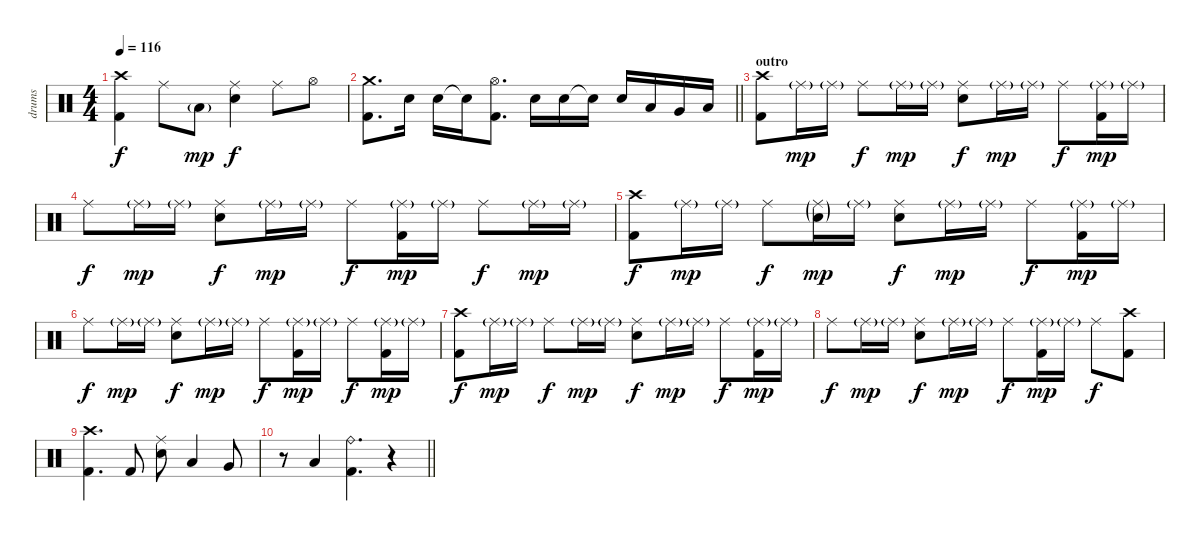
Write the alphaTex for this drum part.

\track ("drums" "drums") {instrument percussion}
\staff {score}
\articulation defaults
\ts (4 4)
\tempo 116
\clef neutral
\ks c
("Crash high (hit)" "Kick (hit) 2").4{dy f} "Ride (middle)".8 "Low Tom (hit)"{g}.8{dy mp} ("Ride (middle)" "Snare (hit) 2").4{dy f} "Ride (middle)".8 "Hi-Hat (open)".8 |
\barLineRight lightlight
("Crash medium (hit)" "Kick (hit) 2").8{d} "Snare (hit) 2".16 "Snare (hit) 2".16 "Snare (hit)"{t}.16 ("Hi-Hat (open)" "Kick (hit) 2").8{d} "Snare (hit) 2".16 "Snare (hit) 2".16 "Snare (hit)"{t}.16 "Snare (hit) 2".16 "Low Tom (hit)".16 "Very Low Tom (hit)".16 "Low Floor Tom (hit)".16 |
\section ("" "outro")
("Crash high (hit)" "Kick (hit) 2").8 "Ride (middle)"{g}.16{dy mp} "Ride (middle)"{g}.16 "Ride (middle)".8{dy f} "Ride (middle)"{g}.16{dy mp} "Ride (middle)"{g}.16 ("Ride (middle)" "Snare (hit) 2").8{dy f} "Ride (middle)"{g}.16{dy mp} "Ride (middle)"{g}.16 "Ride (middle)".8{dy f} ("Ride (middle)"{g} "Kick (hit) 2").16{dy mp} "Ride (middle)"{g}.16 |
"Ride (middle)".8{dy f} "Ride (middle)"{g}.16{dy mp} "Ride (middle)"{g}.16 ("Ride (middle)" "Snare (hit) 2").8{dy f} "Ride (middle)"{g}.16{dy mp} "Ride (middle)"{g}.16 "Ride (middle)".8{dy f} ("Ride (middle)"{g} "Kick (hit) 2").16{dy mp} "Ride (middle)"{g}.16 "Ride (middle)".8{dy f} "Ride (middle)"{g}.16{dy mp} "Ride (middle)"{g}.16 |
("Crash high (hit)" "Kick (hit) 2").8{dy f} "Ride (middle)"{g}.16{dy mp} "Ride (middle)"{g}.16 "Ride (middle)".8{dy f} ("Ride (middle)"{g} "Snare (hit) 2"{g}).16{dy mp} "Ride (middle)"{g}.16 ("Ride (middle)" "Snare (hit) 2").8{dy f} "Ride (middle)"{g}.16{dy mp} "Ride (middle)"{g}.16 "Ride (middle)".8{dy f} ("Ride (middle)"{g} "Kick (hit) 2").16{dy mp} "Ride (middle)"{g}.16 |
"Ride (middle)".8{dy f} "Ride (middle)"{g}.16{dy mp} "Ride (middle)"{g}.16 ("Ride (middle)" "Snare (hit) 2").8{dy f} "Ride (middle)"{g}.16{dy mp} "Ride (middle)"{g}.16 "Ride (middle)".8{dy f} ("Ride (middle)"{g} "Kick (hit) 2").16{dy mp} "Ride (middle)"{g}.16 "Ride (middle)".8{dy f} ("Ride (middle)"{g} "Kick (hit) 2").16{dy mp} "Ride (middle)"{g}.16 |
("Crash high (hit)" "Kick (hit) 2").8{dy f} "Ride (middle)"{g}.16{dy mp} "Ride (middle)"{g}.16 "Ride (middle)".8{dy f} "Ride (middle)"{g}.16{dy mp} "Ride (middle)"{g}.16 ("Ride (middle)" "Snare (hit) 2").8{dy f} "Ride (middle)"{g}.16{dy mp} "Ride (middle)"{g}.16 "Ride (middle)".8{dy f} ("Ride (middle)"{g} "Kick (hit) 2").16{dy mp} "Ride (middle)"{g}.16 |
"Ride (middle)".8{dy f} "Ride (middle)"{g}.16{dy mp} "Ride (middle)"{g}.16 ("Ride (middle)" "Snare (hit) 2").8{dy f} "Ride (middle)"{g}.16{dy mp} "Ride (middle)"{g}.16 "Ride (middle)".8{dy f} ("Ride (middle)"{g} "Kick (hit) 2").16{dy mp} "Ride (middle)"{g}.16 "Ride (middle)".8{dy f} ("Crash high (hit)" "Kick (hit) 2").8 |
("Crash high (hit)" "Kick (hit) 2").4{d} "Kick (hit) 2".8 ("Ride (middle)" "Snare (hit) 2").8 "Low Tom (hit)".4 "Very Low Tom (hit)".8 |
\barLineRight lightlight
r.8 "Low Floor Tom (hit)".4 ("Ride (bell)" "Kick (hit) 2").4{d} r.4
